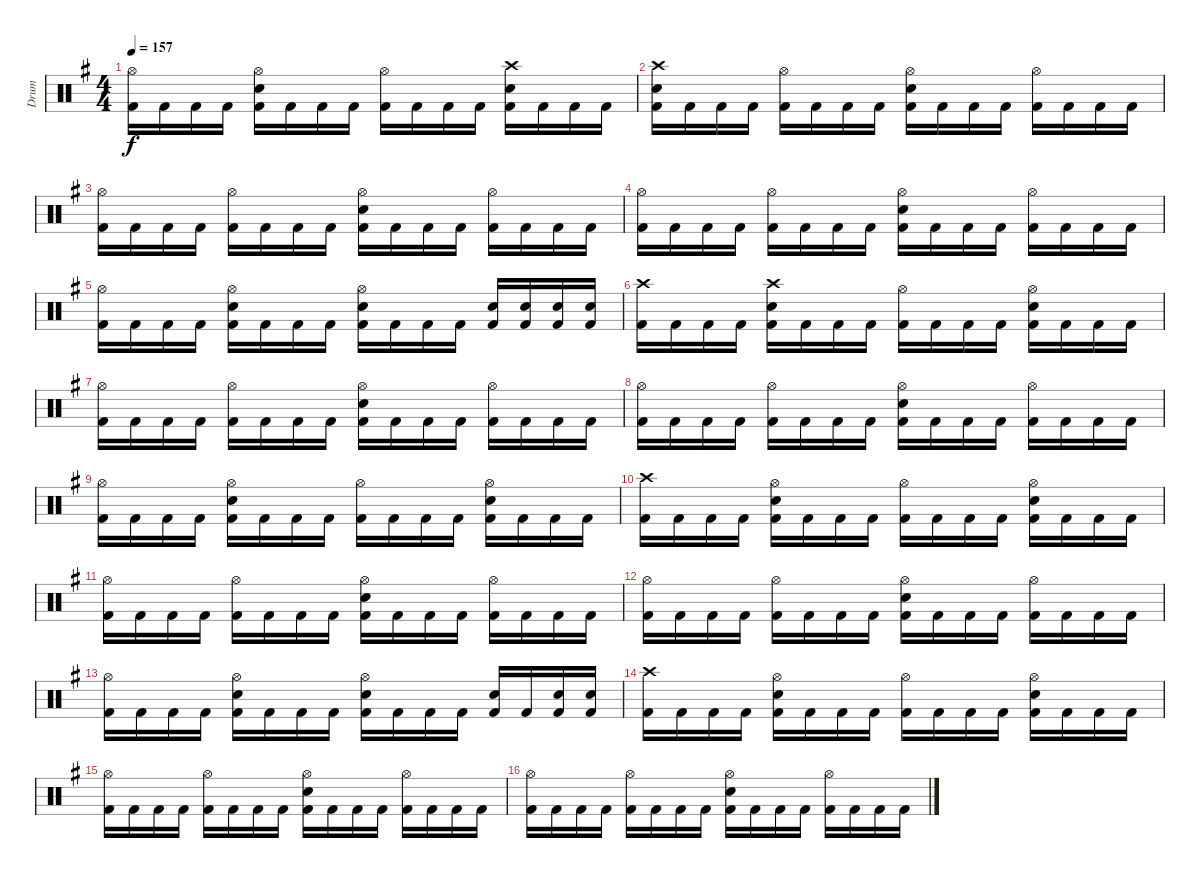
\track ("Drum" "Drum") {instrument percussion}
\staff {score}
\articulation defaults
\ts (4 4)
\tempo 157
\clef neutral
\ks eminor
("Hi-Hat (open)" "Kick (hit) 2").16{dy f} "Kick (hit) 2".16 "Kick (hit) 2".16 "Kick (hit) 2".16 ("Hi-Hat (open)" "Snare (hit) 2" "Kick (hit) 2").16 "Kick (hit) 2".16 "Kick (hit) 2".16 "Kick (hit) 2".16 ("Hi-Hat (open)" "Kick (hit) 2").16 "Kick (hit) 2".16 "Kick (hit) 2".16 "Kick (hit) 2".16 ("Crash high (hit)" "Snare (hit) 2" "Kick (hit) 2").16 "Kick (hit) 2".16 "Kick (hit) 2".16 "Kick (hit) 2".16 |
("Crash high (hit)" "Snare (hit) 2" "Kick (hit) 2").16 "Kick (hit) 2".16 "Kick (hit) 2".16 "Kick (hit) 2".16 ("Hi-Hat (open)" "Kick (hit) 2").16 "Kick (hit) 2".16 "Kick (hit) 2".16 "Kick (hit) 2".16 ("Hi-Hat (open)" "Snare (hit) 2" "Kick (hit) 2").16 "Kick (hit) 2".16 "Kick (hit) 2".16 "Kick (hit) 2".16 ("Hi-Hat (open)" "Kick (hit) 2").16 "Kick (hit) 2".16 "Kick (hit) 2".16 "Kick (hit) 2".16 |
("Hi-Hat (open)" "Kick (hit) 2").16 "Kick (hit) 2".16 "Kick (hit) 2".16 "Kick (hit) 2".16 ("Hi-Hat (open)" "Kick (hit) 2").16 "Kick (hit) 2".16 "Kick (hit) 2".16 "Kick (hit) 2".16 ("Hi-Hat (open)" "Snare (hit) 2" "Kick (hit) 2").16 "Kick (hit) 2".16 "Kick (hit) 2".16 "Kick (hit) 2".16 ("Hi-Hat (open)" "Kick (hit) 2").16 "Kick (hit) 2".16 "Kick (hit) 2".16 "Kick (hit) 2".16 |
("Hi-Hat (open)" "Kick (hit) 2").16 "Kick (hit) 2".16 "Kick (hit) 2".16 "Kick (hit) 2".16 ("Hi-Hat (open)" "Kick (hit) 2").16 "Kick (hit) 2".16 "Kick (hit) 2".16 "Kick (hit) 2".16 ("Hi-Hat (open)" "Snare (hit) 2" "Kick (hit) 2").16 "Kick (hit) 2".16 "Kick (hit) 2".16 "Kick (hit) 2".16 ("Hi-Hat (open)" "Kick (hit) 2").16 "Kick (hit) 2".16 "Kick (hit) 2".16 "Kick (hit) 2".16 |
("Hi-Hat (open)" "Kick (hit) 2").16 "Kick (hit) 2".16 "Kick (hit) 2".16 "Kick (hit) 2".16 ("Hi-Hat (open)" "Snare (hit) 2" "Kick (hit) 2").16 "Kick (hit) 2".16 "Kick (hit) 2".16 "Kick (hit) 2".16 ("Hi-Hat (open)" "Snare (hit) 2" "Kick (hit) 2").16 "Kick (hit) 2".16 "Kick (hit) 2".16 "Kick (hit) 2".16 ("Snare (hit) 2" "Kick (hit) 2").16 ("Snare (hit) 2" "Kick (hit) 2").16 ("Snare (hit) 2" "Kick (hit) 2").16 ("Snare (hit) 2" "Kick (hit) 2").16 |
("Crash high (hit)" "Kick (hit) 2").16 "Kick (hit) 2".16 "Kick (hit) 2".16 "Kick (hit) 2".16 ("Crash high (hit)" "Snare (hit) 2" "Kick (hit) 2").16 "Kick (hit) 2".16 "Kick (hit) 2".16 "Kick (hit) 2".16 ("Hi-Hat (open)" "Kick (hit) 2").16 "Kick (hit) 2".16 "Kick (hit) 2".16 "Kick (hit) 2".16 ("Hi-Hat (open)" "Snare (hit) 2" "Kick (hit) 2").16 "Kick (hit) 2".16 "Kick (hit) 2".16 "Kick (hit) 2".16 |
("Hi-Hat (open)" "Kick (hit) 2").16 "Kick (hit) 2".16 "Kick (hit) 2".16 "Kick (hit) 2".16 ("Hi-Hat (open)" "Kick (hit) 2").16 "Kick (hit) 2".16 "Kick (hit) 2".16 "Kick (hit) 2".16 ("Hi-Hat (open)" "Snare (hit) 2" "Kick (hit) 2").16 "Kick (hit) 2".16 "Kick (hit) 2".16 "Kick (hit) 2".16 ("Hi-Hat (open)" "Kick (hit) 2").16 "Kick (hit) 2".16 "Kick (hit) 2".16 "Kick (hit) 2".16 |
("Hi-Hat (open)" "Kick (hit) 2").16 "Kick (hit) 2".16 "Kick (hit) 2".16 "Kick (hit) 2".16 ("Hi-Hat (open)" "Kick (hit) 2").16 "Kick (hit) 2".16 "Kick (hit) 2".16 "Kick (hit) 2".16 ("Hi-Hat (open)" "Snare (hit) 2" "Kick (hit) 2").16 "Kick (hit) 2".16 "Kick (hit) 2".16 "Kick (hit) 2".16 ("Hi-Hat (open)" "Kick (hit) 2").16 "Kick (hit) 2".16 "Kick (hit) 2".16 "Kick (hit) 2".16 |
("Hi-Hat (open)" "Kick (hit) 2").16 "Kick (hit) 2".16 "Kick (hit) 2".16 "Kick (hit) 2".16 ("Hi-Hat (open)" "Snare (hit) 2" "Kick (hit) 2").16 "Kick (hit) 2".16 "Kick (hit) 2".16 "Kick (hit) 2".16 ("Hi-Hat (open)" "Kick (hit) 2").16 "Kick (hit) 2".16 "Kick (hit) 2".16 "Kick (hit) 2".16 ("Hi-Hat (open)" "Snare (hit) 2" "Kick (hit) 2").16 "Kick (hit) 2".16 "Kick (hit) 2".16 "Kick (hit) 2".16 |
("Crash high (hit)" "Kick (hit) 2").16 "Kick (hit) 2".16 "Kick (hit) 2".16 "Kick (hit) 2".16 ("Hi-Hat (open)" "Snare (hit) 2" "Kick (hit) 2").16 "Kick (hit) 2".16 "Kick (hit) 2".16 "Kick (hit) 2".16 ("Hi-Hat (open)" "Kick (hit) 2").16 "Kick (hit) 2".16 "Kick (hit) 2".16 "Kick (hit) 2".16 ("Hi-Hat (open)" "Snare (hit) 2" "Kick (hit) 2").16 "Kick (hit) 2".16 "Kick (hit) 2".16 "Kick (hit) 2".16 |
("Hi-Hat (open)" "Kick (hit) 2").16 "Kick (hit) 2".16 "Kick (hit) 2".16 "Kick (hit) 2".16 ("Hi-Hat (open)" "Kick (hit) 2").16 "Kick (hit) 2".16 "Kick (hit) 2".16 "Kick (hit) 2".16 ("Hi-Hat (open)" "Snare (hit) 2" "Kick (hit) 2").16 "Kick (hit) 2".16 "Kick (hit) 2".16 "Kick (hit) 2".16 ("Hi-Hat (open)" "Kick (hit) 2").16 "Kick (hit) 2".16 "Kick (hit) 2".16 "Kick (hit) 2".16 |
("Hi-Hat (open)" "Kick (hit) 2").16 "Kick (hit) 2".16 "Kick (hit) 2".16 "Kick (hit) 2".16 ("Hi-Hat (open)" "Kick (hit) 2").16 "Kick (hit) 2".16 "Kick (hit) 2".16 "Kick (hit) 2".16 ("Hi-Hat (open)" "Snare (hit) 2" "Kick (hit) 2").16 "Kick (hit) 2".16 "Kick (hit) 2".16 "Kick (hit) 2".16 ("Hi-Hat (open)" "Kick (hit) 2").16 "Kick (hit) 2".16 "Kick (hit) 2".16 "Kick (hit) 2".16 |
("Hi-Hat (open)" "Kick (hit) 2").16 "Kick (hit) 2".16 "Kick (hit) 2".16 "Kick (hit) 2".16 ("Hi-Hat (open)" "Snare (hit) 2" "Kick (hit) 2").16 "Kick (hit) 2".16 "Kick (hit) 2".16 "Kick (hit) 2".16 ("Hi-Hat (open)" "Snare (hit) 2" "Kick (hit) 2").16 "Kick (hit) 2".16 "Kick (hit) 2".16 "Kick (hit) 2".16 ("Snare (hit) 2" "Kick (hit) 2").16 "Kick (hit) 2".16 ("Snare (hit) 2" "Kick (hit) 2").16 ("Snare (hit) 2" "Kick (hit) 2").16 |
("Crash high (hit)" "Kick (hit) 2").16 "Kick (hit) 2".16 "Kick (hit) 2".16 "Kick (hit) 2".16 ("Hi-Hat (open)" "Snare (hit) 2" "Kick (hit) 2").16 "Kick (hit) 2".16 "Kick (hit) 2".16 "Kick (hit) 2".16 ("Hi-Hat (open)" "Kick (hit) 2").16 "Kick (hit) 2".16 "Kick (hit) 2".16 "Kick (hit) 2".16 ("Hi-Hat (open)" "Snare (hit) 2" "Kick (hit) 2").16 "Kick (hit) 2".16 "Kick (hit) 2".16 "Kick (hit) 2".16 |
("Hi-Hat (open)" "Kick (hit) 2").16 "Kick (hit) 2".16 "Kick (hit) 2".16 "Kick (hit) 2".16 ("Hi-Hat (open)" "Kick (hit) 2").16 "Kick (hit) 2".16 "Kick (hit) 2".16 "Kick (hit) 2".16 ("Hi-Hat (open)" "Snare (hit) 2" "Kick (hit) 2").16 "Kick (hit) 2".16 "Kick (hit) 2".16 "Kick (hit) 2".16 ("Hi-Hat (open)" "Kick (hit) 2").16 "Kick (hit) 2".16 "Kick (hit) 2".16 "Kick (hit) 2".16 |
("Hi-Hat (open)" "Kick (hit) 2").16 "Kick (hit) 2".16 "Kick (hit) 2".16 "Kick (hit) 2".16 ("Hi-Hat (open)" "Kick (hit) 2").16 "Kick (hit) 2".16 "Kick (hit) 2".16 "Kick (hit) 2".16 ("Hi-Hat (open)" "Snare (hit) 2" "Kick (hit) 2").16 "Kick (hit) 2".16 "Kick (hit) 2".16 "Kick (hit) 2".16 ("Hi-Hat (open)" "Kick (hit) 2").16 "Kick (hit) 2".16 "Kick (hit) 2".16 "Kick (hit) 2".16
